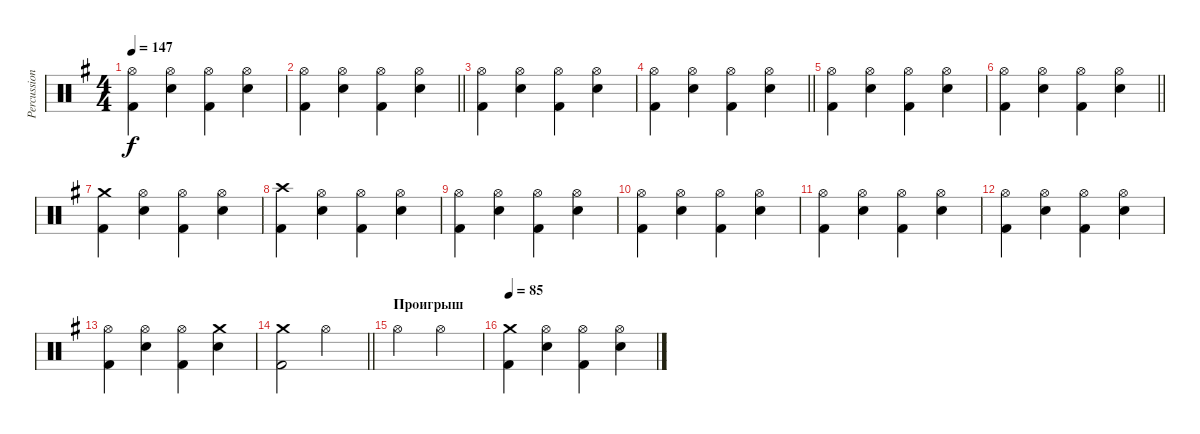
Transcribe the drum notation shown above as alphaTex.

\track ("Percussion" "Percussion") {instrument percussion}
\staff {score}
\articulation defaults
\ts (4 4)
\tempo 147
\clef neutral
\ks eminor
("Hi-Hat (open)" "Kick (hit) 2").4{dy f} ("Hi-Hat (open)" "Snare (hit) 2").4 ("Hi-Hat (open)" "Kick (hit) 2").4 ("Hi-Hat (open)" "Snare (hit) 2").4 |
\barLineRight lightlight
("Hi-Hat (open)" "Kick (hit) 2").4 ("Hi-Hat (open)" "Snare (hit) 2").4 ("Hi-Hat (open)" "Kick (hit) 2").4 ("Hi-Hat (open)" "Snare (hit) 2").4 |
("Hi-Hat (open)" "Kick (hit) 2").4 ("Hi-Hat (open)" "Snare (hit) 2").4 ("Hi-Hat (open)" "Kick (hit) 2").4 ("Hi-Hat (open)" "Snare (hit) 2").4 |
\barLineRight lightlight
("Hi-Hat (open)" "Kick (hit) 2").4 ("Hi-Hat (open)" "Snare (hit) 2").4 ("Hi-Hat (open)" "Kick (hit) 2").4 ("Hi-Hat (open)" "Snare (hit) 2").4 |
("Hi-Hat (open)" "Kick (hit) 2").4 ("Hi-Hat (open)" "Snare (hit) 2").4 ("Hi-Hat (open)" "Kick (hit) 2").4 ("Hi-Hat (open)" "Snare (hit) 2").4 |
\barLineRight lightlight
("Hi-Hat (open)" "Kick (hit) 2").4 ("Hi-Hat (open)" "Snare (hit) 2").4 ("Hi-Hat (open)" "Kick (hit) 2").4 ("Hi-Hat (open)" "Snare (hit) 2").4 |
("Crash medium (hit)" "Kick (hit) 2").4 ("Hi-Hat (open)" "Snare (hit) 2").4 ("Hi-Hat (open)" "Kick (hit) 2").4 ("Hi-Hat (open)" "Snare (hit) 2").4 |
("Crash high (hit)" "Kick (hit) 2").4 ("Hi-Hat (open)" "Snare (hit) 2").4 ("Hi-Hat (open)" "Kick (hit) 2").4 ("Hi-Hat (open)" "Snare (hit) 2").4 |
("Hi-Hat (open)" "Kick (hit) 2").4 ("Hi-Hat (open)" "Snare (hit) 2").4 ("Hi-Hat (open)" "Kick (hit) 2").4 ("Hi-Hat (open)" "Snare (hit) 2").4 |
("Hi-Hat (open)" "Kick (hit) 2").4 ("Hi-Hat (open)" "Snare (hit) 2").4 ("Hi-Hat (open)" "Kick (hit) 2").4 ("Hi-Hat (open)" "Snare (hit) 2").4 |
("Hi-Hat (open)" "Kick (hit) 2").4 ("Hi-Hat (open)" "Snare (hit) 2").4 ("Hi-Hat (open)" "Kick (hit) 2").4 ("Hi-Hat (open)" "Snare (hit) 2").4 |
("Hi-Hat (open)" "Kick (hit) 2").4 ("Hi-Hat (open)" "Snare (hit) 2").4 ("Hi-Hat (open)" "Kick (hit) 2").4 ("Hi-Hat (open)" "Snare (hit) 2").4 |
("Hi-Hat (open)" "Kick (hit) 2").4 ("Hi-Hat (open)" "Snare (hit) 2").4 ("Hi-Hat (open)" "Kick (hit) 2").4 ("Crash medium (hit)" "Snare (hit) 2").4 |
\barLineRight lightlight
("Crash medium (hit)" "Kick (hit) 2").2 "Hi-Hat (open)".2 |
\section ("" "Проигрыш")
"Hi-Hat (open)".2 "Hi-Hat (open)".2 |
\tempo 85
("Crash medium (hit)" "Kick (hit) 2").4 ("Hi-Hat (open)" "Snare (hit) 2").4 ("Hi-Hat (open)" "Kick (hit) 2").4 ("Hi-Hat (open)" "Snare (hit) 2").4
